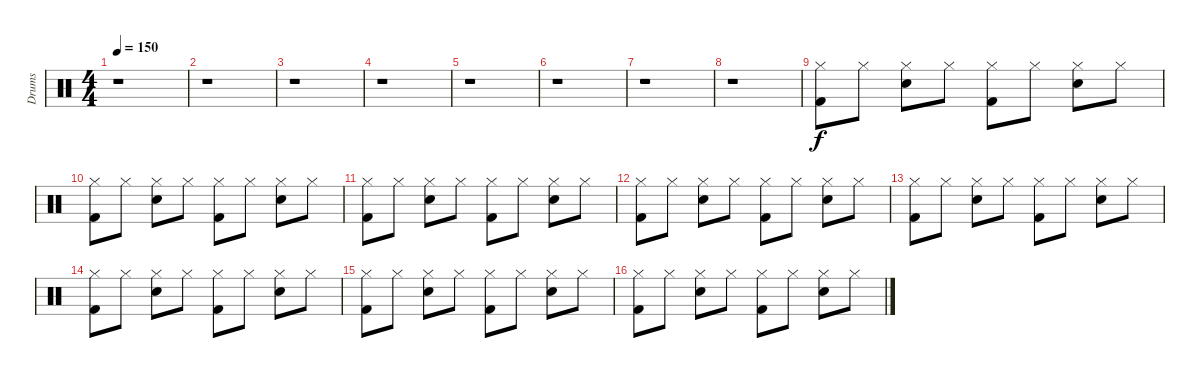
\track ("Drums" "Drums") {instrument percussion}
\staff {score}
\articulation defaults
\ts (4 4)
\tempo 150
\clef neutral
\ks c
r.1{dy f} |
r.1 |
r.1 |
r.1 |
r.1 |
r.1 |
r.1 |
r.1 |
("Hi-Hat (closed)" "Kick (hit) 2").8 "Hi-Hat (closed)".8 ("Hi-Hat (closed)" "Electric Snare (hit)").8 "Hi-Hat (closed)".8 ("Hi-Hat (closed)" "Kick (hit) 2").8 "Hi-Hat (closed)".8 ("Hi-Hat (closed)" "Electric Snare (hit)").8 "Hi-Hat (closed)".8 |
("Hi-Hat (closed)" "Kick (hit) 2").8 "Hi-Hat (closed)".8 ("Hi-Hat (closed)" "Electric Snare (hit)").8 "Hi-Hat (closed)".8 ("Hi-Hat (closed)" "Kick (hit) 2").8 "Hi-Hat (closed)".8 ("Hi-Hat (closed)" "Electric Snare (hit)").8 "Hi-Hat (closed)".8 |
("Hi-Hat (closed)" "Kick (hit) 2").8 "Hi-Hat (closed)".8 ("Hi-Hat (closed)" "Electric Snare (hit)").8 "Hi-Hat (closed)".8 ("Hi-Hat (closed)" "Kick (hit) 2").8 "Hi-Hat (closed)".8 ("Hi-Hat (closed)" "Electric Snare (hit)").8 "Hi-Hat (closed)".8 |
("Hi-Hat (closed)" "Kick (hit) 2").8 "Hi-Hat (closed)".8 ("Hi-Hat (closed)" "Electric Snare (hit)").8 "Hi-Hat (closed)".8 ("Hi-Hat (closed)" "Kick (hit) 2").8 "Hi-Hat (closed)".8 ("Hi-Hat (closed)" "Electric Snare (hit)").8 "Hi-Hat (closed)".8 |
("Hi-Hat (closed)" "Kick (hit) 2").8 "Hi-Hat (closed)".8 ("Hi-Hat (closed)" "Electric Snare (hit)").8 "Hi-Hat (closed)".8 ("Hi-Hat (closed)" "Kick (hit) 2").8 "Hi-Hat (closed)".8 ("Hi-Hat (closed)" "Electric Snare (hit)").8 "Hi-Hat (closed)".8 |
("Hi-Hat (closed)" "Kick (hit) 2").8 "Hi-Hat (closed)".8 ("Hi-Hat (closed)" "Electric Snare (hit)").8 "Hi-Hat (closed)".8 ("Hi-Hat (closed)" "Kick (hit) 2").8 "Hi-Hat (closed)".8 ("Hi-Hat (closed)" "Electric Snare (hit)").8 "Hi-Hat (closed)".8 |
("Hi-Hat (closed)" "Kick (hit) 2").8 "Hi-Hat (closed)".8 ("Hi-Hat (closed)" "Electric Snare (hit)").8 "Hi-Hat (closed)".8 ("Hi-Hat (closed)" "Kick (hit) 2").8 "Hi-Hat (closed)".8 ("Hi-Hat (closed)" "Electric Snare (hit)").8 "Hi-Hat (closed)".8 |
("Hi-Hat (closed)" "Kick (hit) 2").8 "Hi-Hat (closed)".8 ("Hi-Hat (closed)" "Electric Snare (hit)").8 "Hi-Hat (closed)".8 ("Hi-Hat (closed)" "Kick (hit) 2").8 "Hi-Hat (closed)".8 ("Hi-Hat (closed)" "Electric Snare (hit)").8 "Hi-Hat (closed)".8
